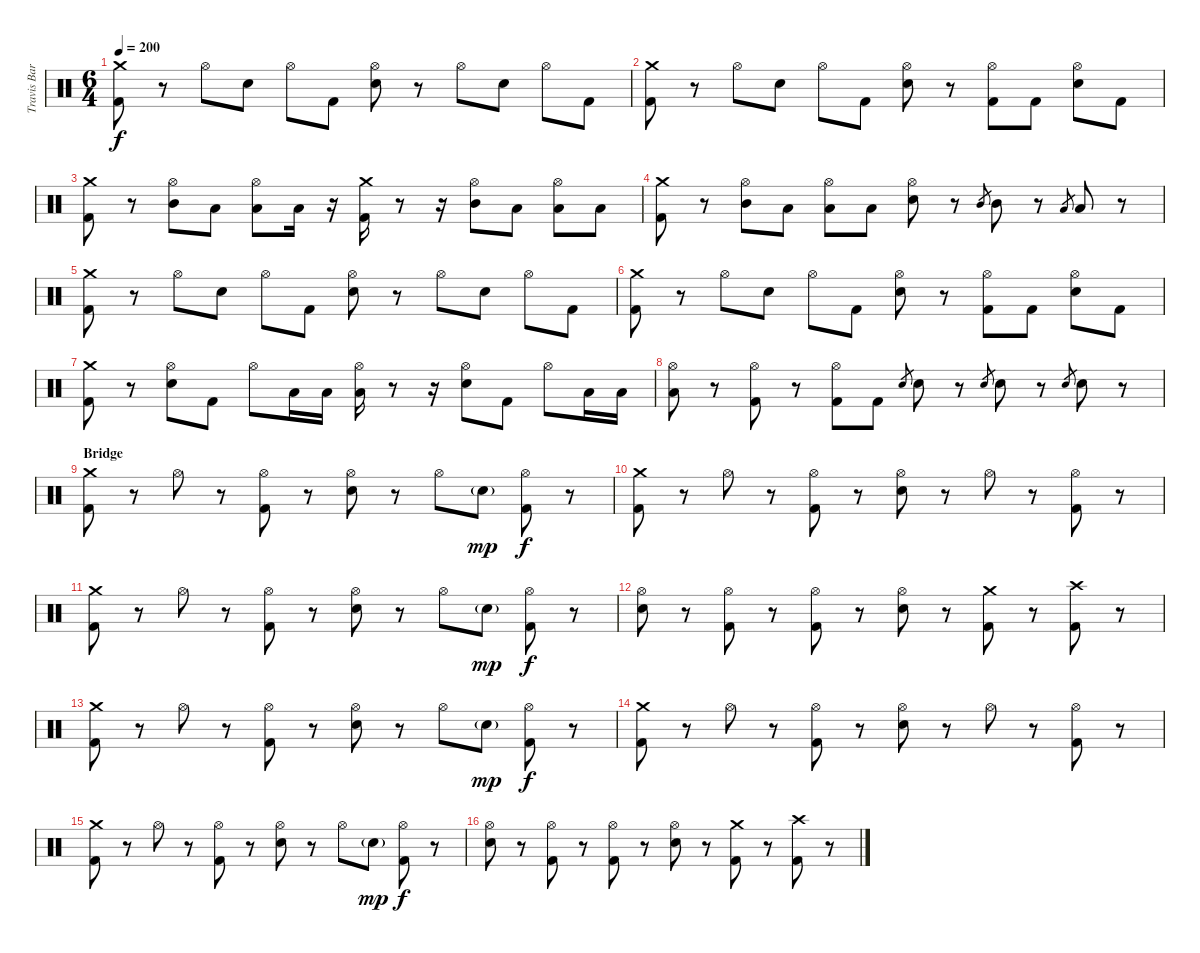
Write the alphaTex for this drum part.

\track ("Travis Barker - Drums" "Travis Bar") {instrument percussion}
\staff {score}
\articulation defaults
\ts (6 4)
\tempo 200
\clef neutral
\ks c
("Crash medium (hit)" "Kick (hit) 2").8{dy f} r.8 "Hi-Hat (open)".8 "Electric Snare (hit)".8 "Hi-Hat (open)".8 "Kick (hit) 2".8 ("Hi-Hat (open)" "Electric Snare (hit)").8 r.8 "Hi-Hat (open)".8 "Electric Snare (hit)".8 "Hi-Hat (open)".8 "Kick (hit) 2".8 |
("Crash medium (hit)" "Kick (hit) 2").8 r.8 "Hi-Hat (open)".8 "Electric Snare (hit)".8 "Hi-Hat (open)".8 "Kick (hit) 2".8 ("Hi-Hat (open)" "Electric Snare (hit)").8 r.8 ("Hi-Hat (open)" "Kick (hit) 2").8 "Kick (hit) 2".8 ("Hi-Hat (open)" "Electric Snare (hit)").8 "Kick (hit) 2".8 |
("Crash medium (hit)" "Kick (hit) 2").8 r.8 ("Hi-Hat (open)" "Mid Tom (hit)").8 "Low Tom (hit)".8 ("Hi-Hat (open)" "Low Tom (hit)").8 "Low Tom (hit)".16 r.16 ("Crash medium (hit)" "Kick (hit) 2").16 r.8 r.16 ("Hi-Hat (open)" "Mid Tom (hit)").8 "Low Tom (hit)".8 ("Hi-Hat (open)" "Low Tom (hit)").8 "Low Tom (hit)".8 |
("Crash medium (hit)" "Kick (hit) 2").8 r.8 ("Hi-Hat (open)" "Mid Tom (hit)").8 "Low Tom (hit)".8 ("Hi-Hat (open)" "Low Tom (hit)").8 "Low Tom (hit)".8 ("Hi-Hat (open)" "Electric Snare (hit)").8 r.8 "Mid Tom (hit)".8{gr} "Mid Tom (hit)".8 r.8 "Low Tom (hit)".8{gr} "Low Tom (hit)".8 r.8 |
("Crash medium (hit)" "Kick (hit) 2").8 r.8 "Hi-Hat (open)".8 "Electric Snare (hit)".8 "Hi-Hat (open)".8 "Kick (hit) 2".8 ("Hi-Hat (open)" "Electric Snare (hit)").8 r.8 "Hi-Hat (open)".8 "Electric Snare (hit)".8 "Hi-Hat (open)".8 "Kick (hit) 2".8 |
("Crash medium (hit)" "Kick (hit) 2").8 r.8 "Hi-Hat (open)".8 "Electric Snare (hit)".8 "Hi-Hat (open)".8 "Kick (hit) 2".8 ("Hi-Hat (open)" "Electric Snare (hit)").8 r.8 ("Hi-Hat (open)" "Kick (hit) 2").8 "Kick (hit) 2".8 ("Hi-Hat (open)" "Electric Snare (hit)").8 "Kick (hit) 2".8 |
("Crash medium (hit)" "Kick (hit) 2").8 r.8 ("Hi-Hat (open)" "Electric Snare (hit)").8 "Kick (hit) 2".8 "Hi-Hat (open)".8 "Low Tom (hit)".16 "Low Tom (hit)".16 ("Hi-Hat (open)" "Low Tom (hit)").16 r.8 r.16 ("Hi-Hat (open)" "Electric Snare (hit)").8 "Kick (hit) 2".8 "Hi-Hat (open)".8 "Low Tom (hit)".16 "Low Tom (hit)".16 |
("Hi-Hat (open)" "Low Tom (hit)").8 r.8 ("Hi-Hat (open)" "Kick (hit) 2").8 r.8 ("Hi-Hat (open)" "Kick (hit) 2").8 "Kick (hit) 2".8 "Electric Snare (hit)".8{gr} "Electric Snare (hit)".8 r.8 "Electric Snare (hit)".8{gr} "Electric Snare (hit)".8 r.8 "Electric Snare (hit)".8{gr} "Electric Snare (hit)".8 r.8 |
\section ("" "Bridge")
("Crash medium (hit)" "Kick (hit) 2").8 r.8 "Hi-Hat (open)".8 r.8 ("Hi-Hat (open)" "Kick (hit) 2").8 r.8 ("Hi-Hat (open)" "Electric Snare (hit)").8 r.8 "Hi-Hat (open)".8 "Electric Snare (hit)"{g}.8{dy mp} ("Hi-Hat (open)" "Kick (hit) 2").8{dy f} r.8 |
("Crash medium (hit)" "Kick (hit) 2").8 r.8 "Hi-Hat (open)".8 r.8 ("Hi-Hat (open)" "Kick (hit) 2").8 r.8 ("Hi-Hat (open)" "Electric Snare (hit)").8 r.8 "Hi-Hat (open)".8 r.8 ("Hi-Hat (open)" "Kick (hit) 2").8 r.8 |
("Crash medium (hit)" "Kick (hit) 2").8 r.8 "Hi-Hat (open)".8 r.8 ("Hi-Hat (open)" "Kick (hit) 2").8 r.8 ("Hi-Hat (open)" "Electric Snare (hit)").8 r.8 "Hi-Hat (open)".8 "Electric Snare (hit)"{g}.8{dy mp} ("Hi-Hat (open)" "Kick (hit) 2").8{dy f} r.8 |
("Hi-Hat (open)" "Electric Snare (hit)").8 r.8 ("Hi-Hat (open)" "Kick (hit) 2").8 r.8 ("Hi-Hat (open)" "Kick (hit) 2").8 r.8 ("Hi-Hat (open)" "Electric Snare (hit)").8 r.8 ("Crash medium (hit)" "Kick (hit) 2").8 r.8 ("Crash high (hit)" "Kick (hit) 2").8 r.8 |
("Crash medium (hit)" "Kick (hit) 2").8 r.8 "Hi-Hat (open)".8 r.8 ("Hi-Hat (open)" "Kick (hit) 2").8 r.8 ("Hi-Hat (open)" "Electric Snare (hit)").8 r.8 "Hi-Hat (open)".8 "Electric Snare (hit)"{g}.8{dy mp} ("Hi-Hat (open)" "Kick (hit) 2").8{dy f} r.8 |
("Crash medium (hit)" "Kick (hit) 2").8 r.8 "Hi-Hat (open)".8 r.8 ("Hi-Hat (open)" "Kick (hit) 2").8 r.8 ("Hi-Hat (open)" "Electric Snare (hit)").8 r.8 "Hi-Hat (open)".8 r.8 ("Hi-Hat (open)" "Kick (hit) 2").8 r.8 |
("Crash medium (hit)" "Kick (hit) 2").8 r.8 "Hi-Hat (open)".8 r.8 ("Hi-Hat (open)" "Kick (hit) 2").8 r.8 ("Hi-Hat (open)" "Electric Snare (hit)").8 r.8 "Hi-Hat (open)".8 "Electric Snare (hit)"{g}.8{dy mp} ("Hi-Hat (open)" "Kick (hit) 2").8{dy f} r.8 |
("Hi-Hat (open)" "Electric Snare (hit)").8 r.8 ("Hi-Hat (open)" "Kick (hit) 2").8 r.8 ("Hi-Hat (open)" "Kick (hit) 2").8 r.8 ("Hi-Hat (open)" "Electric Snare (hit)").8 r.8 ("Crash medium (hit)" "Kick (hit) 2").8 r.8 ("Crash high (hit)" "Kick (hit) 2").8 r.8
